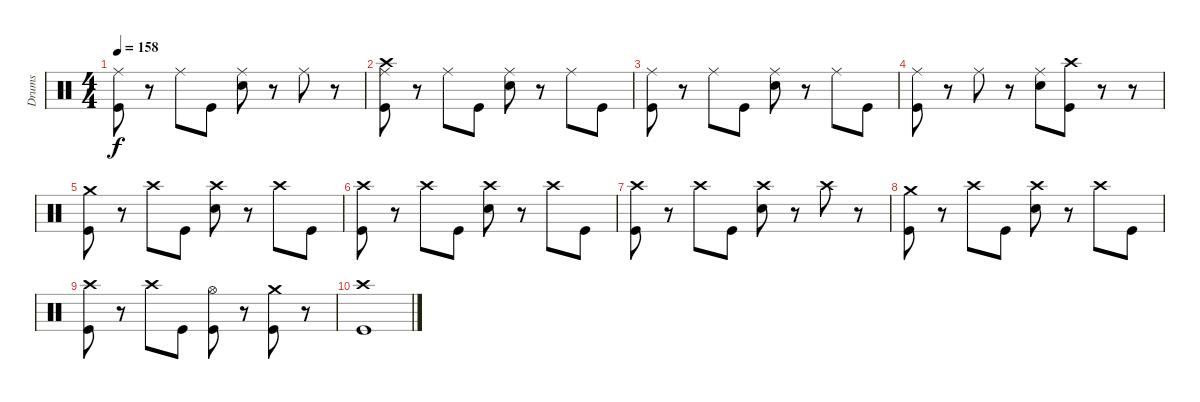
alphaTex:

\track ("Drums" "Drums") {instrument percussion}
\staff {score}
\articulation defaults
\ts (4 4)
\tempo 158
\clef neutral
\ks c
("Ride (middle)" "Kick (hit)").8{dy f} r.8 "Ride (middle)".8 "Kick (hit)".8 ("Ride (middle)" "Snare (hit) 2").8 r.8 "Ride (middle)".8 r.8 |
("Crash high (hit)" "Ride (middle)" "Kick (hit)").8 r.8 "Ride (middle)".8 "Kick (hit)".8 ("Ride (middle)" "Snare (hit) 2").8 r.8 "Ride (middle)".8 "Kick (hit)".8 |
("Ride (middle)" "Kick (hit)").8 r.8 "Ride (middle)".8 "Kick (hit)".8 ("Ride (middle)" "Snare (hit) 2").8 r.8 "Ride (middle)".8 "Kick (hit)".8 |
("Ride (middle)" "Kick (hit)").8 r.8 "Ride (middle)".8 r.8 ("Ride (middle)" "Snare (hit) 2").8 ("Crash high (hit)" "Kick (hit)").8 r.8 r.8 |
("Crash medium (hit)" "Kick (hit)").8 r.8 "Crash high (hit)".8 "Kick (hit)".8 ("Crash high (hit)" "Snare (hit) 2").8 r.8 "Crash high (hit)".8 "Kick (hit)".8 |
("Crash high (hit)" "Kick (hit)").8 r.8 "Crash high (hit)".8 "Kick (hit)".8 ("Crash high (hit)" "Snare (hit) 2").8 r.8 "Crash high (hit)".8 "Kick (hit)".8 |
("Crash high (hit)" "Kick (hit)").8 r.8 "Crash high (hit)".8 "Kick (hit)".8 ("Crash high (hit)" "Snare (hit) 2").8 r.8 "Crash high (hit)".8 r.8 |
("Crash medium (hit)" "Kick (hit)").8 r.8 "Crash high (hit)".8 "Kick (hit)".8 ("Crash high (hit)" "Snare (hit) 2").8 r.8 "Crash high (hit)".8 "Kick (hit)".8 |
("Crash high (hit)" "Kick (hit)").8 r.8 "Crash high (hit)".8 "Kick (hit)".8 ("Hi-Hat (open)" "Kick (hit)").8 r.8 ("Crash medium (hit)" "Kick (hit)").8 r.8 |
("Crash high (hit)" "Kick (hit)").1
